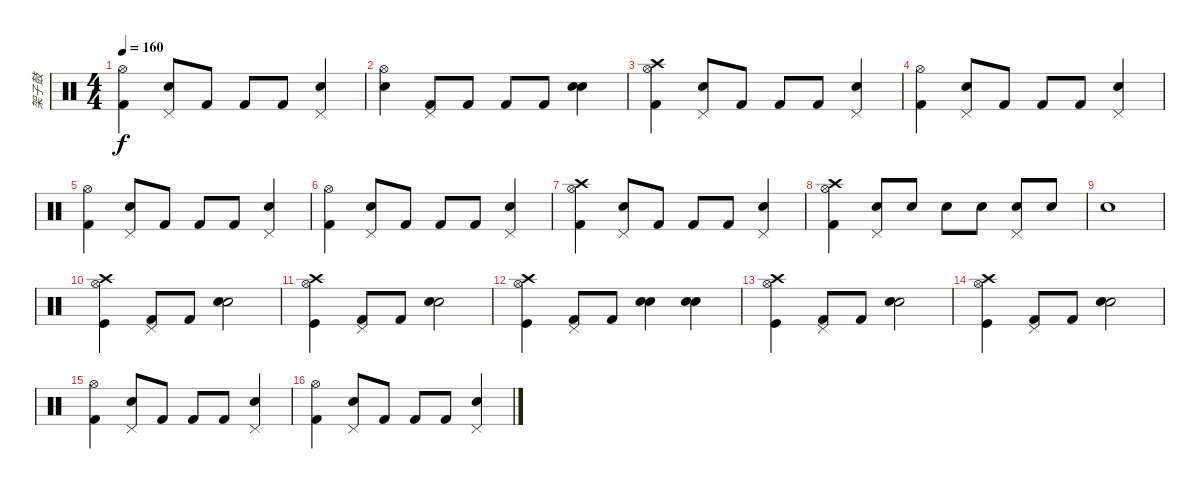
\track ("架子鼓" "架子鼓") {instrument percussion}
\staff {score}
\articulation defaults
\ts (4 4)
\tempo 160
\clef neutral
\ks c
("Kick (hit) 2" "Hi-Hat (open)").4{dy f} ("Electric Snare (hit)" "Pedal Hi-Hat (hit)").8 "Kick (hit) 2".8 "Kick (hit) 2".8 "Kick (hit) 2".8 ("Electric Snare (hit)" "Pedal Hi-Hat (hit)").4 |
("Snare (hit) 2" "Hi-Hat (open)").4 ("Kick (hit) 2" "Pedal Hi-Hat (hit)").8 "Kick (hit) 2".8 "Kick (hit) 2".8 "Kick (hit) 2".8 ("Electric Snare (hit)" "Snare (hit) 2").4 |
("Kick (hit) 2" "Hi-Hat (open)" "Crash high (hit)").4 ("Electric Snare (hit)" "Pedal Hi-Hat (hit)").8 "Kick (hit) 2".8 "Kick (hit) 2".8 "Kick (hit) 2".8 ("Electric Snare (hit)" "Pedal Hi-Hat (hit)").4 |
("Kick (hit) 2" "Hi-Hat (open)").4 ("Electric Snare (hit)" "Pedal Hi-Hat (hit)").8 "Kick (hit) 2".8 "Kick (hit) 2".8 "Kick (hit) 2".8 ("Electric Snare (hit)" "Pedal Hi-Hat (hit)").4 |
("Kick (hit) 2" "Hi-Hat (open)").4 ("Electric Snare (hit)" "Pedal Hi-Hat (hit)").8 "Kick (hit) 2".8 "Kick (hit) 2".8 "Kick (hit) 2".8 ("Electric Snare (hit)" "Pedal Hi-Hat (hit)").4 |
("Kick (hit) 2" "Hi-Hat (open)").4 ("Electric Snare (hit)" "Pedal Hi-Hat (hit)").8 "Kick (hit) 2".8 "Kick (hit) 2".8 "Kick (hit) 2".8 ("Electric Snare (hit)" "Pedal Hi-Hat (hit)").4 |
("Kick (hit) 2" "Hi-Hat (open)" "Crash high (hit)").4 ("Electric Snare (hit)" "Pedal Hi-Hat (hit)").8 "Kick (hit) 2".8 "Kick (hit) 2".8 "Kick (hit) 2".8 ("Electric Snare (hit)" "Pedal Hi-Hat (hit)").4 |
("Kick (hit) 2" "Hi-Hat (open)" "Crash high (hit)").4 ("Electric Snare (hit)" "Pedal Hi-Hat (hit)").8 "Electric Snare (hit)".8 "Electric Snare (hit)".8 "Electric Snare (hit)".8 ("Electric Snare (hit)" "Pedal Hi-Hat (hit)").8 "Electric Snare (hit)".8 |
"Electric Snare (hit)".1 |
("Kick (hit)" "Hi-Hat (open)" "Crash high (hit)").4 ("Kick (hit) 2" "Pedal Hi-Hat (hit)").8 "Kick (hit) 2".8 ("Snare (hit) 2" "Metronome (bell)").2 |
("Kick (hit)" "Hi-Hat (open)" "Crash high (hit)").4 ("Kick (hit) 2" "Pedal Hi-Hat (hit)").8 "Kick (hit) 2".8 ("Snare (hit) 2" "Metronome (bell)").2 |
("Kick (hit)" "Hi-Hat (open)" "Crash high (hit)").4 ("Kick (hit) 2" "Pedal Hi-Hat (hit)").8 "Kick (hit) 2".8 ("Snare (hit) 2" "Metronome (bell)").4 ("Snare (hit) 2" "Metronome (bell)").4 |
("Kick (hit)" "Hi-Hat (open)" "Crash high (hit)").4 ("Kick (hit) 2" "Pedal Hi-Hat (hit)").8 "Kick (hit) 2".8 ("Snare (hit) 2" "Metronome (bell)").2 |
("Kick (hit)" "Hi-Hat (open)" "Crash high (hit)").4 ("Kick (hit) 2" "Pedal Hi-Hat (hit)").8 "Kick (hit) 2".8 ("Snare (hit) 2" "Metronome (bell)").2 |
("Kick (hit) 2" "Hi-Hat (open)").4 ("Electric Snare (hit)" "Pedal Hi-Hat (hit)").8 "Kick (hit) 2".8 "Kick (hit) 2".8 "Kick (hit) 2".8 ("Electric Snare (hit)" "Pedal Hi-Hat (hit)").4 |
("Kick (hit) 2" "Hi-Hat (open)").4 ("Electric Snare (hit)" "Pedal Hi-Hat (hit)").8 "Kick (hit) 2".8 "Kick (hit) 2".8 "Kick (hit) 2".8 ("Electric Snare (hit)" "Pedal Hi-Hat (hit)").4
